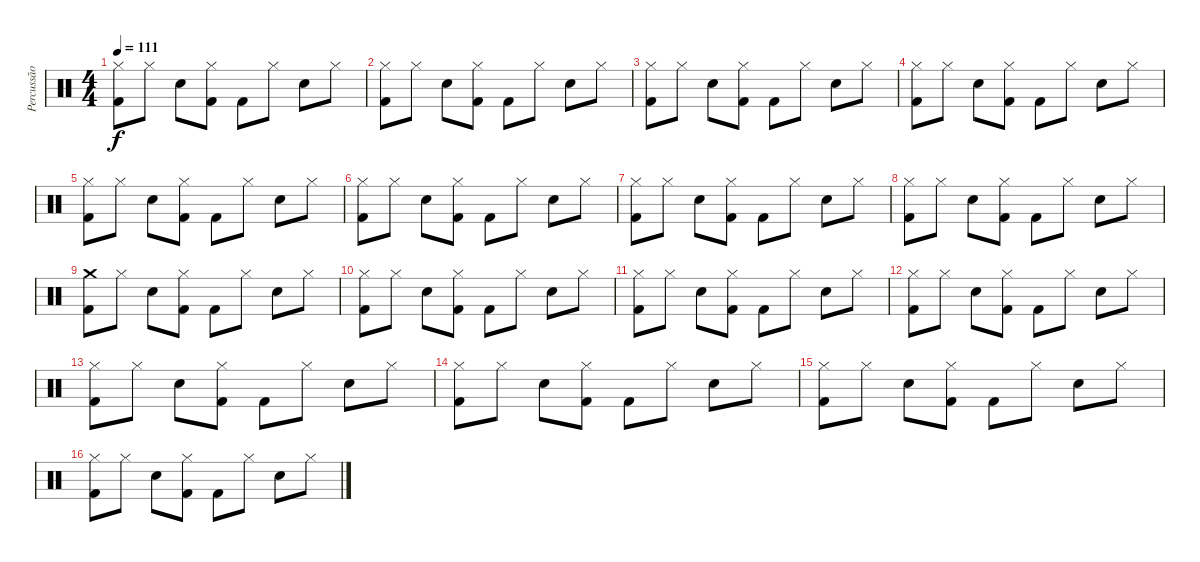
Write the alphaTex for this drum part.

\track ("Percussão" "Percussão") {instrument percussion}
\staff {score}
\articulation defaults
\ts (4 4)
\tempo 111
\clef neutral
\ks c
("Hi-Hat (closed)" "Kick (hit) 2").8{dy f} "Hi-Hat (closed)".8 "Electric Snare (hit)".8 ("Hi-Hat (closed)" "Kick (hit) 2").8 "Kick (hit) 2".8 "Hi-Hat (closed)".8 "Electric Snare (hit)".8 "Hi-Hat (closed)".8 |
("Hi-Hat (closed)" "Kick (hit) 2").8 "Hi-Hat (closed)".8 "Electric Snare (hit)".8 ("Hi-Hat (closed)" "Kick (hit) 2").8 "Kick (hit) 2".8 "Hi-Hat (closed)".8 "Electric Snare (hit)".8 "Hi-Hat (closed)".8 |
("Hi-Hat (closed)" "Kick (hit) 2").8 "Hi-Hat (closed)".8 "Electric Snare (hit)".8 ("Hi-Hat (closed)" "Kick (hit) 2").8 "Kick (hit) 2".8 "Hi-Hat (closed)".8 "Electric Snare (hit)".8 "Hi-Hat (closed)".8 |
("Hi-Hat (closed)" "Kick (hit) 2").8 "Hi-Hat (closed)".8 "Electric Snare (hit)".8 ("Hi-Hat (closed)" "Kick (hit) 2").8 "Kick (hit) 2".8 "Hi-Hat (closed)".8 "Electric Snare (hit)".8 "Hi-Hat (closed)".8 |
("Hi-Hat (closed)" "Kick (hit) 2").8 "Hi-Hat (closed)".8 "Electric Snare (hit)".8 ("Hi-Hat (closed)" "Kick (hit) 2").8 "Kick (hit) 2".8 "Hi-Hat (closed)".8 "Electric Snare (hit)".8 "Hi-Hat (closed)".8 |
("Hi-Hat (closed)" "Kick (hit) 2").8 "Hi-Hat (closed)".8 "Electric Snare (hit)".8 ("Hi-Hat (closed)" "Kick (hit) 2").8 "Kick (hit) 2".8 "Hi-Hat (closed)".8 "Electric Snare (hit)".8 "Hi-Hat (closed)".8 |
("Hi-Hat (closed)" "Kick (hit) 2").8 "Hi-Hat (closed)".8 "Electric Snare (hit)".8 ("Hi-Hat (closed)" "Kick (hit) 2").8 "Kick (hit) 2".8 "Hi-Hat (closed)".8 "Electric Snare (hit)".8 "Hi-Hat (closed)".8 |
("Hi-Hat (closed)" "Kick (hit) 2").8 "Hi-Hat (closed)".8 "Electric Snare (hit)".8 ("Hi-Hat (closed)" "Kick (hit) 2").8 "Kick (hit) 2".8 "Hi-Hat (closed)".8 "Electric Snare (hit)".8 "Hi-Hat (closed)".8 |
("Crash medium (hit)" "Kick (hit) 2").8 "Hi-Hat (closed)".8 "Electric Snare (hit)".8 ("Hi-Hat (closed)" "Kick (hit) 2").8 "Kick (hit) 2".8 "Hi-Hat (closed)".8 "Electric Snare (hit)".8 "Hi-Hat (closed)".8 |
("Hi-Hat (closed)" "Kick (hit) 2").8 "Hi-Hat (closed)".8 "Electric Snare (hit)".8 ("Hi-Hat (closed)" "Kick (hit) 2").8 "Kick (hit) 2".8 "Hi-Hat (closed)".8 "Electric Snare (hit)".8 "Hi-Hat (closed)".8 |
("Hi-Hat (closed)" "Kick (hit) 2").8 "Hi-Hat (closed)".8 "Electric Snare (hit)".8 ("Hi-Hat (closed)" "Kick (hit) 2").8 "Kick (hit) 2".8 "Hi-Hat (closed)".8 "Electric Snare (hit)".8 "Hi-Hat (closed)".8 |
("Hi-Hat (closed)" "Kick (hit) 2").8 "Hi-Hat (closed)".8 "Electric Snare (hit)".8 ("Hi-Hat (closed)" "Kick (hit) 2").8 "Kick (hit) 2".8 "Hi-Hat (closed)".8 "Electric Snare (hit)".8 "Hi-Hat (closed)".8 |
("Hi-Hat (closed)" "Kick (hit) 2").8 "Hi-Hat (closed)".8 "Electric Snare (hit)".8 ("Hi-Hat (closed)" "Kick (hit) 2").8 "Kick (hit) 2".8 "Hi-Hat (closed)".8 "Electric Snare (hit)".8 "Hi-Hat (closed)".8 |
("Hi-Hat (closed)" "Kick (hit) 2").8 "Hi-Hat (closed)".8 "Electric Snare (hit)".8 ("Hi-Hat (closed)" "Kick (hit) 2").8 "Kick (hit) 2".8 "Hi-Hat (closed)".8 "Electric Snare (hit)".8 "Hi-Hat (closed)".8 |
("Hi-Hat (closed)" "Kick (hit) 2").8 "Hi-Hat (closed)".8 "Electric Snare (hit)".8 ("Hi-Hat (closed)" "Kick (hit) 2").8 "Kick (hit) 2".8 "Hi-Hat (closed)".8 "Electric Snare (hit)".8 "Hi-Hat (closed)".8 |
("Hi-Hat (closed)" "Kick (hit) 2").8 "Hi-Hat (closed)".8 "Electric Snare (hit)".8 ("Hi-Hat (closed)" "Kick (hit) 2").8 "Kick (hit) 2".8 "Hi-Hat (closed)".8 "Electric Snare (hit)".8 "Hi-Hat (closed)".8
